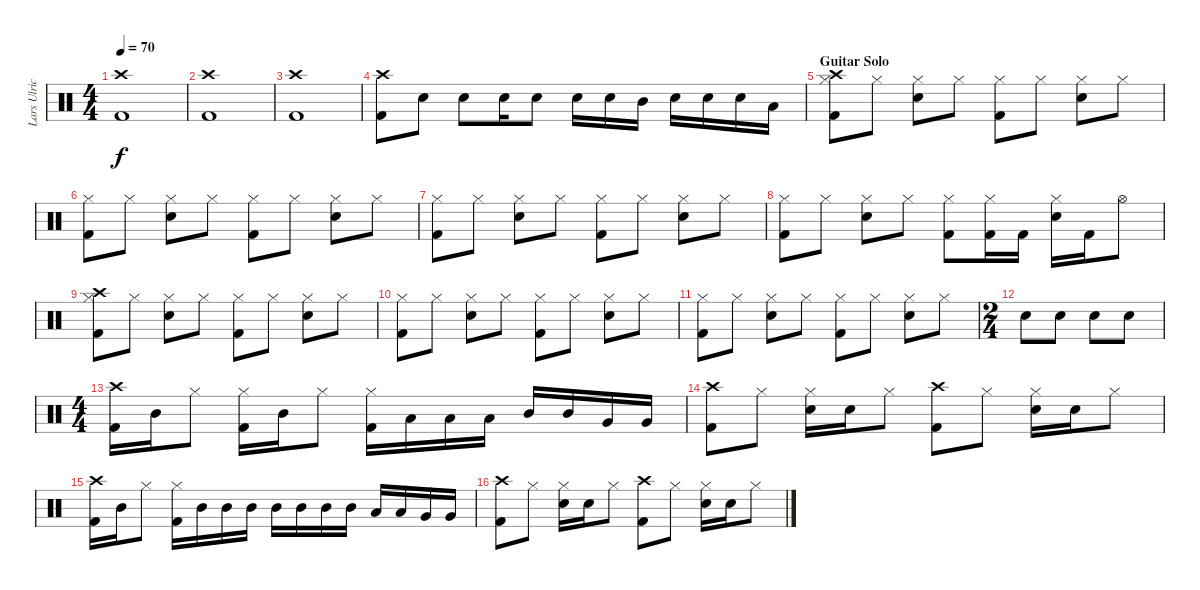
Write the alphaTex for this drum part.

\track ("Lars Ulrich (Drums)" "Lars Ulric") {instrument percussion}
\staff {score}
\articulation defaults
\ts (4 4)
\tempo 70
\clef neutral
\ks c
("Crash high (hit)" "Kick (hit) 2").1{dy f} |
("Crash high (hit)" "Kick (hit) 2").1 |
("Crash high (hit)" "Kick (hit) 2").1 |
("Crash high (hit)" "Kick (hit) 2").8 "Electric Snare (hit)".8 "Electric Snare (hit)".8 "Electric Snare (hit)".16 "Electric Snare (hit)".8 "Electric Snare (hit)".16 "Electric Snare (hit)".16 "Mid Tom (hit)".16 "Electric Snare (hit)".16 "Electric Snare (hit)".16 "Electric Snare (hit)".16 "Low Floor Tom (hit)".16 |
\section ("" "Guitar Solo")
("Crash high (hit)" "Hi-Hat (closed)" "Kick (hit) 2").8 "Hi-Hat (closed)".8 ("Electric Snare (hit)" "Hi-Hat (closed)").8 "Hi-Hat (closed)".8 ("Hi-Hat (closed)" "Kick (hit) 2").8 "Hi-Hat (closed)".8 ("Electric Snare (hit)" "Hi-Hat (closed)").8 "Hi-Hat (closed)".8 |
("Hi-Hat (closed)" "Kick (hit) 2").8 "Hi-Hat (closed)".8 ("Electric Snare (hit)" "Hi-Hat (closed)").8 "Hi-Hat (closed)".8 ("Hi-Hat (closed)" "Kick (hit) 2").8 "Hi-Hat (closed)".8 ("Electric Snare (hit)" "Hi-Hat (closed)").8 "Hi-Hat (closed)".8 |
("Hi-Hat (closed)" "Kick (hit) 2").8 "Hi-Hat (closed)".8 ("Electric Snare (hit)" "Hi-Hat (closed)").8 "Hi-Hat (closed)".8 ("Hi-Hat (closed)" "Kick (hit) 2").8 "Hi-Hat (closed)".8 ("Electric Snare (hit)" "Hi-Hat (closed)").8 "Hi-Hat (closed)".8 |
("Hi-Hat (closed)" "Kick (hit) 2").8 "Hi-Hat (closed)".8 ("Electric Snare (hit)" "Hi-Hat (closed)").8 "Hi-Hat (closed)".8 ("Hi-Hat (closed)" "Kick (hit) 2").8 ("Hi-Hat (closed)" "Kick (hit) 2").16 "Kick (hit) 2".16 ("Electric Snare (hit)" "Hi-Hat (closed)").16 "Kick (hit) 2".16 "Hi-Hat (open)".8 |
("Crash high (hit)" "Hi-Hat (closed)" "Kick (hit) 2").8 "Hi-Hat (closed)".8 ("Electric Snare (hit)" "Hi-Hat (closed)").8 "Hi-Hat (closed)".8 ("Hi-Hat (closed)" "Kick (hit) 2").8 "Hi-Hat (closed)".8 ("Electric Snare (hit)" "Hi-Hat (closed)").8 "Hi-Hat (closed)".8 |
("Hi-Hat (closed)" "Kick (hit) 2").8 "Hi-Hat (closed)".8 ("Electric Snare (hit)" "Hi-Hat (closed)").8 "Hi-Hat (closed)".8 ("Hi-Hat (closed)" "Kick (hit) 2").8 "Hi-Hat (closed)".8 ("Electric Snare (hit)" "Hi-Hat (closed)").8 "Hi-Hat (closed)".8 |
("Hi-Hat (closed)" "Kick (hit) 2").8 "Hi-Hat (closed)".8 ("Electric Snare (hit)" "Hi-Hat (closed)").8 "Hi-Hat (closed)".8 ("Hi-Hat (closed)" "Kick (hit) 2").8 "Hi-Hat (closed)".8 ("Electric Snare (hit)" "Hi-Hat (closed)").8 "Hi-Hat (closed)".8 |
\ts (2 4)
"Electric Snare (hit)".8 "Electric Snare (hit)".8 "Electric Snare (hit)".8 "Electric Snare (hit)".8 |
\ts (4 4)
("Crash high (hit)" "Kick (hit) 2").16 "Mid Tom (hit)".16 "Hi-Hat (closed)".8 ("Hi-Hat (closed)" "Kick (hit) 2").16 "Mid Tom (hit)".16 "Hi-Hat (closed)".8 ("Hi-Hat (closed)" "Kick (hit) 2").16 "Low Floor Tom (hit)".16 "Low Floor Tom (hit)".16 "Low Floor Tom (hit)".16 "Mid Tom (hit)".16 "Mid Tom (hit)".16 "Very Low Tom (hit)".16 "Very Low Tom (hit)".16 |
("Crash high (hit)" "Kick (hit) 2").8 "Hi-Hat (closed)".8 ("Electric Snare (hit)" "Hi-Hat (closed)").16 "Electric Snare (hit)".16 "Hi-Hat (closed)".8 ("Crash high (hit)" "Kick (hit) 2").8 "Hi-Hat (closed)".8 ("Electric Snare (hit)" "Hi-Hat (closed)").16 "Electric Snare (hit)".16 "Hi-Hat (closed)".8 |
("Crash high (hit)" "Kick (hit) 2").16 "Mid Tom (hit)".16 "Hi-Hat (closed)".8 ("Hi-Hat (closed)" "Kick (hit) 2").16 "Mid Tom (hit)".16 "Mid Tom (hit)".16 "Mid Tom (hit)".16 "Mid Tom (hit)".16 "Mid Tom (hit)".16 "Mid Tom (hit)".16 "Mid Tom (hit)".16 "Low Floor Tom (hit)".16 "Low Floor Tom (hit)".16 "Very Low Tom (hit)".16 "Very Low Tom (hit)".16 |
("Crash high (hit)" "Kick (hit) 2").8 "Hi-Hat (closed)".8 ("Electric Snare (hit)" "Hi-Hat (closed)").16 "Electric Snare (hit)".16 "Hi-Hat (closed)".8 ("Crash high (hit)" "Kick (hit) 2").8 "Hi-Hat (closed)".8 ("Electric Snare (hit)" "Hi-Hat (closed)").16 "Electric Snare (hit)".16 "Hi-Hat (closed)".8
